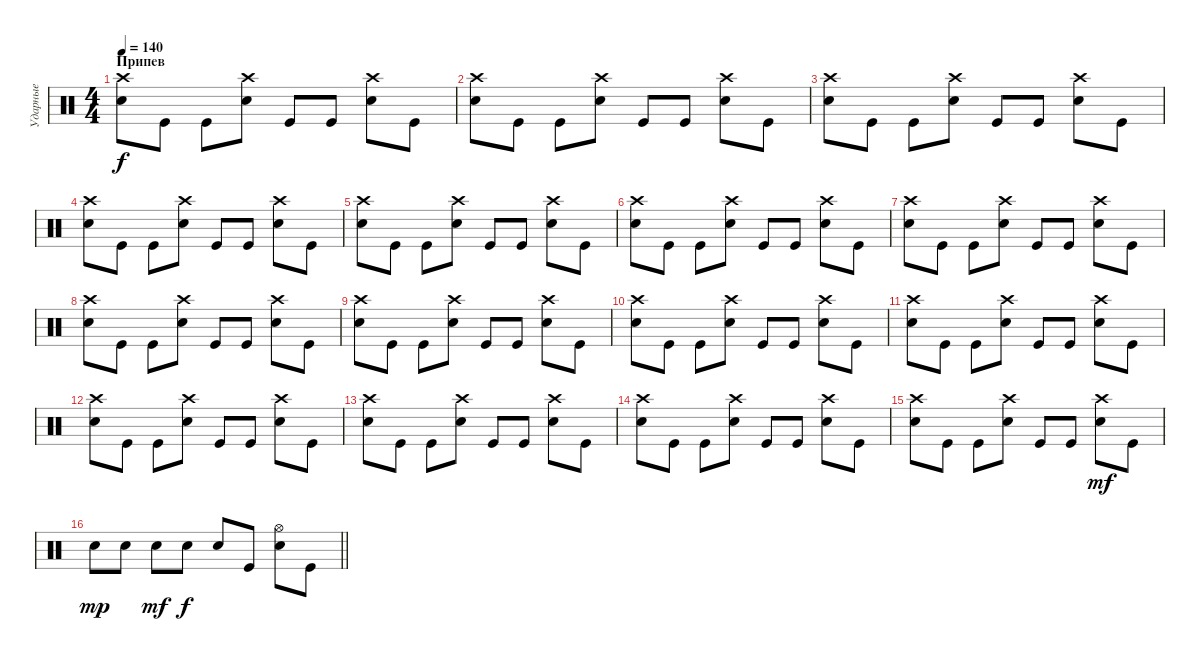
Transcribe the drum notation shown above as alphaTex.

\track ("Ударные" "Ударные") {instrument percussion}
\staff {score}
\articulation defaults
\ts (4 4)
\section ("" "Припев")
\tempo 140
\clef neutral
\ks c
("Crash high (hit)" "Snare (hit) 2").8{dy f} "Kick (hit)".8 "Kick (hit)".8 ("Crash high (hit)" "Snare (hit) 2").8 "Kick (hit)".8 "Kick (hit)".8 ("Crash high (hit)" "Snare (hit) 2").8 "Kick (hit)".8 |
("Crash high (hit)" "Snare (hit) 2").8 "Kick (hit)".8 "Kick (hit)".8 ("Crash high (hit)" "Snare (hit) 2").8 "Kick (hit)".8 "Kick (hit)".8 ("Crash high (hit)" "Snare (hit) 2").8 "Kick (hit)".8 |
("Crash high (hit)" "Snare (hit) 2").8 "Kick (hit)".8 "Kick (hit)".8 ("Crash high (hit)" "Snare (hit) 2").8 "Kick (hit)".8 "Kick (hit)".8 ("Crash high (hit)" "Snare (hit) 2").8 "Kick (hit)".8 |
("Crash high (hit)" "Snare (hit) 2").8 "Kick (hit)".8 "Kick (hit)".8 ("Crash high (hit)" "Snare (hit) 2").8 "Kick (hit)".8 "Kick (hit)".8 ("Crash high (hit)" "Snare (hit) 2").8 "Kick (hit)".8 |
("Crash high (hit)" "Snare (hit) 2").8 "Kick (hit)".8 "Kick (hit)".8 ("Crash high (hit)" "Snare (hit) 2").8 "Kick (hit)".8 "Kick (hit)".8 ("Crash high (hit)" "Snare (hit) 2").8 "Kick (hit)".8 |
("Crash high (hit)" "Snare (hit) 2").8 "Kick (hit)".8 "Kick (hit)".8 ("Crash high (hit)" "Snare (hit) 2").8 "Kick (hit)".8 "Kick (hit)".8 ("Crash high (hit)" "Snare (hit) 2").8 "Kick (hit)".8 |
("Crash high (hit)" "Snare (hit) 2").8 "Kick (hit)".8 "Kick (hit)".8 ("Crash high (hit)" "Snare (hit) 2").8 "Kick (hit)".8 "Kick (hit)".8 ("Crash high (hit)" "Snare (hit) 2").8 "Kick (hit)".8 |
("Crash high (hit)" "Snare (hit) 2").8 "Kick (hit)".8 "Kick (hit)".8 ("Crash high (hit)" "Snare (hit) 2").8 "Kick (hit)".8 "Kick (hit)".8 ("Crash high (hit)" "Snare (hit) 2").8 "Kick (hit)".8 |
("Crash high (hit)" "Snare (hit) 2").8 "Kick (hit)".8 "Kick (hit)".8 ("Crash high (hit)" "Snare (hit) 2").8 "Kick (hit)".8 "Kick (hit)".8 ("Crash high (hit)" "Snare (hit) 2").8 "Kick (hit)".8 |
("Crash high (hit)" "Snare (hit) 2").8 "Kick (hit)".8 "Kick (hit)".8 ("Crash high (hit)" "Snare (hit) 2").8 "Kick (hit)".8 "Kick (hit)".8 ("Crash high (hit)" "Snare (hit) 2").8 "Kick (hit)".8 |
("Crash high (hit)" "Snare (hit) 2").8 "Kick (hit)".8 "Kick (hit)".8 ("Crash high (hit)" "Snare (hit) 2").8 "Kick (hit)".8 "Kick (hit)".8 ("Crash high (hit)" "Snare (hit) 2").8 "Kick (hit)".8 |
("Crash high (hit)" "Snare (hit) 2").8 "Kick (hit)".8 "Kick (hit)".8 ("Crash high (hit)" "Snare (hit) 2").8 "Kick (hit)".8 "Kick (hit)".8 ("Crash high (hit)" "Snare (hit) 2").8 "Kick (hit)".8 |
("Crash high (hit)" "Snare (hit) 2").8 "Kick (hit)".8 "Kick (hit)".8 ("Crash high (hit)" "Snare (hit) 2").8 "Kick (hit)".8 "Kick (hit)".8 ("Crash high (hit)" "Snare (hit) 2").8 "Kick (hit)".8 |
("Crash high (hit)" "Snare (hit) 2").8 "Kick (hit)".8 "Kick (hit)".8 ("Crash high (hit)" "Snare (hit) 2").8 "Kick (hit)".8 "Kick (hit)".8 ("Crash high (hit)" "Snare (hit) 2").8 "Kick (hit)".8 |
("Crash high (hit)" "Snare (hit) 2").8 "Kick (hit)".8 "Kick (hit)".8 ("Crash high (hit)" "Snare (hit) 2").8 "Kick (hit)".8 "Kick (hit)".8 ("Snare (hit) 2" "Crash high (hit)").8{dy mf} "Kick (hit)".8 |
\barLineRight lightlight "Snare (hit) 2".8{dy mp} "Snare (hit) 2".8 "Snare (hit) 2".8{dy mf} "Snare (hit) 2".8{dy f} "Snare (hit) 2".8 "Kick (hit)".8
("Snare (hit) 2" "Hi-Hat (open)").8 "Kick (hit)".8
